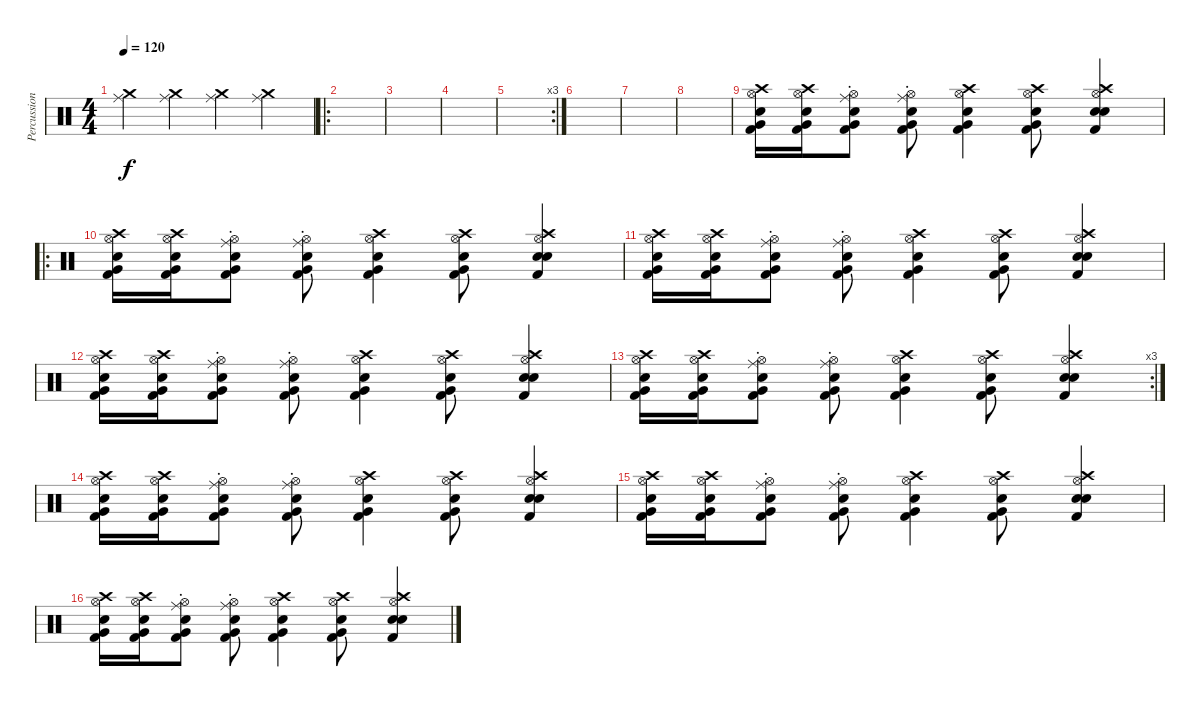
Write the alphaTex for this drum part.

\track ("Percussion" "Percussion") {instrument percussion}
\staff {score}
\articulation defaults
\ts (4 4)
\tempo 120
\clef neutral
\ks c
("Crash medium (hit)" "Ride (middle)").4{dy f} ("Crash medium (hit)" "Ride (middle)").4 ("Crash medium (hit)" "Ride (middle)").4 ("Crash medium (hit)" "Ride (middle)").4 |
\ro
|
|
|
\rc 3
|
|
|
|
("Kick (hit) 2" "Very Low Tom (hit)" "Snare (hit) 2" "Hi-Hat (open)" "Crash high (hit)").16 ("Very Low Tom (hit)" "Kick (hit) 2" "Snare (hit) 2" "Hi-Hat (open)" "Crash high (hit)").16 ("Very Low Tom (hit)" "Kick (hit) 2" "Snare (hit) 2" "Hi-Hat (open)" "Ride (choke)").8 ("Very Low Tom (hit)" "Kick (hit) 2" "Snare (hit) 2" "Hi-Hat (open)" "Ride (choke)").8 ("Very Low Tom (hit)" "Kick (hit) 2" "Snare (hit) 2" "Hi-Hat (open)" "Crash high (hit)").4 ("Very Low Tom (hit)" "Kick (hit) 2" "Snare (hit) 2" "Hi-Hat (open)" "Crash high (hit)").8 ("Metronome (bell)" "Kick (hit) 2" "Snare (hit) 2" "Hi-Hat (open)" "Crash high (hit)").4 |
\ro
("Kick (hit) 2" "Very Low Tom (hit)" "Snare (hit) 2" "Hi-Hat (open)" "Crash high (hit)").16 ("Very Low Tom (hit)" "Kick (hit) 2" "Snare (hit) 2" "Hi-Hat (open)" "Crash high (hit)").16 ("Very Low Tom (hit)" "Kick (hit) 2" "Snare (hit) 2" "Hi-Hat (open)" "Ride (choke)").8 ("Very Low Tom (hit)" "Kick (hit) 2" "Snare (hit) 2" "Hi-Hat (open)" "Ride (choke)").8 ("Very Low Tom (hit)" "Kick (hit) 2" "Snare (hit) 2" "Hi-Hat (open)" "Crash high (hit)").4 ("Very Low Tom (hit)" "Kick (hit) 2" "Snare (hit) 2" "Hi-Hat (open)" "Crash high (hit)").8 ("Metronome (bell)" "Kick (hit) 2" "Snare (hit) 2" "Hi-Hat (open)" "Crash high (hit)").4 |
("Kick (hit) 2" "Very Low Tom (hit)" "Snare (hit) 2" "Hi-Hat (open)" "Crash high (hit)").16 ("Very Low Tom (hit)" "Kick (hit) 2" "Snare (hit) 2" "Hi-Hat (open)" "Crash high (hit)").16 ("Very Low Tom (hit)" "Kick (hit) 2" "Snare (hit) 2" "Hi-Hat (open)" "Ride (choke)").8 ("Very Low Tom (hit)" "Kick (hit) 2" "Snare (hit) 2" "Hi-Hat (open)" "Ride (choke)").8 ("Very Low Tom (hit)" "Kick (hit) 2" "Snare (hit) 2" "Hi-Hat (open)" "Crash high (hit)").4 ("Very Low Tom (hit)" "Kick (hit) 2" "Snare (hit) 2" "Hi-Hat (open)" "Crash high (hit)").8 ("Metronome (bell)" "Kick (hit) 2" "Snare (hit) 2" "Hi-Hat (open)" "Crash high (hit)").4 |
("Kick (hit) 2" "Very Low Tom (hit)" "Snare (hit) 2" "Hi-Hat (open)" "Crash high (hit)").16 ("Very Low Tom (hit)" "Kick (hit) 2" "Snare (hit) 2" "Hi-Hat (open)" "Crash high (hit)").16 ("Very Low Tom (hit)" "Kick (hit) 2" "Snare (hit) 2" "Hi-Hat (open)" "Ride (choke)").8 ("Very Low Tom (hit)" "Kick (hit) 2" "Snare (hit) 2" "Hi-Hat (open)" "Ride (choke)").8 ("Very Low Tom (hit)" "Kick (hit) 2" "Snare (hit) 2" "Hi-Hat (open)" "Crash high (hit)").4 ("Very Low Tom (hit)" "Kick (hit) 2" "Snare (hit) 2" "Hi-Hat (open)" "Crash high (hit)").8 ("Metronome (bell)" "Kick (hit) 2" "Snare (hit) 2" "Hi-Hat (open)" "Crash high (hit)").4 |
\rc 3
("Kick (hit) 2" "Very Low Tom (hit)" "Snare (hit) 2" "Hi-Hat (open)" "Crash high (hit)").16 ("Very Low Tom (hit)" "Kick (hit) 2" "Snare (hit) 2" "Hi-Hat (open)" "Crash high (hit)").16 ("Very Low Tom (hit)" "Kick (hit) 2" "Snare (hit) 2" "Hi-Hat (open)" "Ride (choke)").8 ("Very Low Tom (hit)" "Kick (hit) 2" "Snare (hit) 2" "Hi-Hat (open)" "Ride (choke)").8 ("Very Low Tom (hit)" "Kick (hit) 2" "Snare (hit) 2" "Hi-Hat (open)" "Crash high (hit)").4 ("Very Low Tom (hit)" "Kick (hit) 2" "Snare (hit) 2" "Hi-Hat (open)" "Crash high (hit)").8 ("Metronome (bell)" "Kick (hit) 2" "Snare (hit) 2" "Hi-Hat (open)" "Crash high (hit)").4 |
("Kick (hit) 2" "Very Low Tom (hit)" "Snare (hit) 2" "Hi-Hat (open)" "Crash high (hit)").16 ("Very Low Tom (hit)" "Kick (hit) 2" "Snare (hit) 2" "Hi-Hat (open)" "Crash high (hit)").16 ("Very Low Tom (hit)" "Kick (hit) 2" "Snare (hit) 2" "Hi-Hat (open)" "Ride (choke)").8 ("Very Low Tom (hit)" "Kick (hit) 2" "Snare (hit) 2" "Hi-Hat (open)" "Ride (choke)").8 ("Very Low Tom (hit)" "Kick (hit) 2" "Snare (hit) 2" "Hi-Hat (open)" "Crash high (hit)").4 ("Very Low Tom (hit)" "Kick (hit) 2" "Snare (hit) 2" "Hi-Hat (open)" "Crash high (hit)").8 ("Metronome (bell)" "Kick (hit) 2" "Snare (hit) 2" "Hi-Hat (open)" "Crash high (hit)").4 |
("Kick (hit) 2" "Very Low Tom (hit)" "Snare (hit) 2" "Hi-Hat (open)" "Crash high (hit)").16 ("Very Low Tom (hit)" "Kick (hit) 2" "Snare (hit) 2" "Hi-Hat (open)" "Crash high (hit)").16 ("Very Low Tom (hit)" "Kick (hit) 2" "Snare (hit) 2" "Hi-Hat (open)" "Ride (choke)").8 ("Very Low Tom (hit)" "Kick (hit) 2" "Snare (hit) 2" "Hi-Hat (open)" "Ride (choke)").8 ("Very Low Tom (hit)" "Kick (hit) 2" "Snare (hit) 2" "Hi-Hat (open)" "Crash high (hit)").4 ("Very Low Tom (hit)" "Kick (hit) 2" "Snare (hit) 2" "Hi-Hat (open)" "Crash high (hit)").8 ("Metronome (bell)" "Kick (hit) 2" "Snare (hit) 2" "Hi-Hat (open)" "Crash high (hit)").4 |
("Kick (hit) 2" "Very Low Tom (hit)" "Snare (hit) 2" "Hi-Hat (open)" "Crash high (hit)").16 ("Very Low Tom (hit)" "Kick (hit) 2" "Snare (hit) 2" "Hi-Hat (open)" "Crash high (hit)").16 ("Very Low Tom (hit)" "Kick (hit) 2" "Snare (hit) 2" "Hi-Hat (open)" "Ride (choke)").8 ("Very Low Tom (hit)" "Kick (hit) 2" "Snare (hit) 2" "Hi-Hat (open)" "Ride (choke)").8 ("Very Low Tom (hit)" "Kick (hit) 2" "Snare (hit) 2" "Hi-Hat (open)" "Crash high (hit)").4 ("Very Low Tom (hit)" "Kick (hit) 2" "Snare (hit) 2" "Hi-Hat (open)" "Crash high (hit)").8 ("Metronome (bell)" "Kick (hit) 2" "Snare (hit) 2" "Hi-Hat (open)" "Crash high (hit)").4
